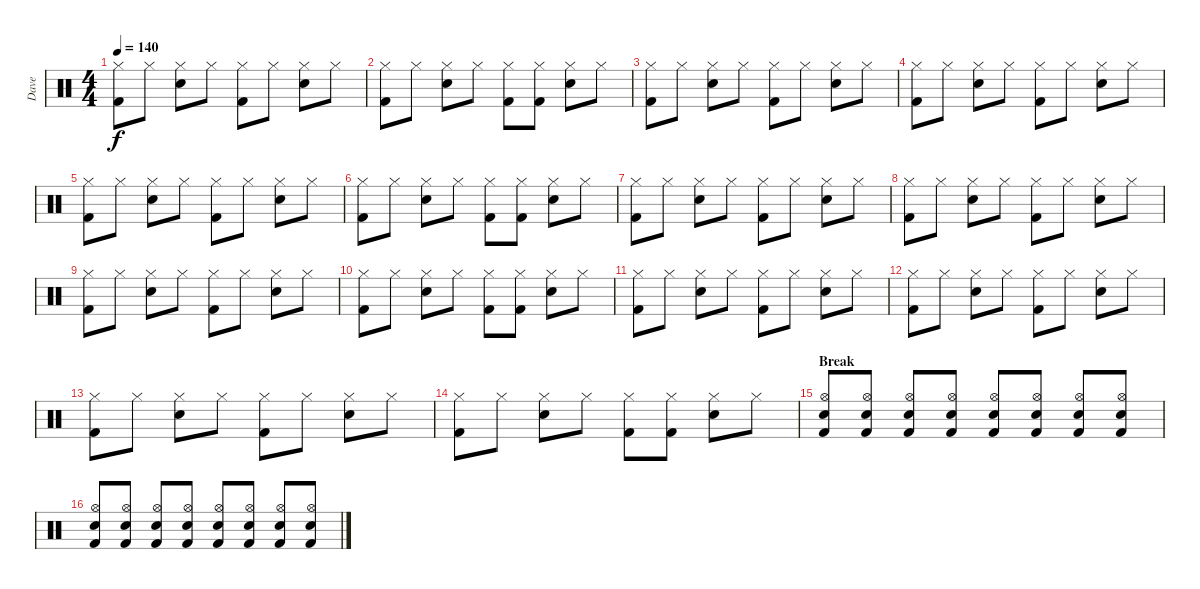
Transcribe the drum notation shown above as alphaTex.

\track ("Dave" "Dave") {instrument percussion}
\staff {score}
\articulation defaults
\ts (4 4)
\tempo 140
\clef neutral
\ks c
("Hi-Hat (closed)" "Kick (hit) 2").8{dy f} "Hi-Hat (closed)".8 ("Hi-Hat (closed)" "Electric Snare (hit)").8 "Hi-Hat (closed)".8 ("Hi-Hat (closed)" "Kick (hit) 2").8 "Hi-Hat (closed)".8 ("Hi-Hat (closed)" "Electric Snare (hit)").8 "Hi-Hat (closed)".8 |
("Hi-Hat (closed)" "Kick (hit) 2").8 "Hi-Hat (closed)".8 ("Hi-Hat (closed)" "Electric Snare (hit)").8 "Hi-Hat (closed)".8 ("Hi-Hat (closed)" "Kick (hit) 2").8 ("Hi-Hat (closed)" "Kick (hit) 2").8 ("Hi-Hat (closed)" "Electric Snare (hit)").8 "Hi-Hat (closed)".8 |
("Hi-Hat (closed)" "Kick (hit) 2").8 "Hi-Hat (closed)".8 ("Hi-Hat (closed)" "Electric Snare (hit)").8 "Hi-Hat (closed)".8 ("Hi-Hat (closed)" "Kick (hit) 2").8 "Hi-Hat (closed)".8 ("Hi-Hat (closed)" "Electric Snare (hit)").8 "Hi-Hat (closed)".8 |
("Hi-Hat (closed)" "Kick (hit) 2").8 "Hi-Hat (closed)".8 ("Hi-Hat (closed)" "Electric Snare (hit)").8 "Hi-Hat (closed)".8 ("Hi-Hat (closed)" "Kick (hit) 2").8 "Hi-Hat (closed)".8 ("Hi-Hat (closed)" "Electric Snare (hit)").8 "Hi-Hat (closed)".8 |
("Hi-Hat (closed)" "Kick (hit) 2").8 "Hi-Hat (closed)".8 ("Hi-Hat (closed)" "Electric Snare (hit)").8 "Hi-Hat (closed)".8 ("Hi-Hat (closed)" "Kick (hit) 2").8 "Hi-Hat (closed)".8 ("Hi-Hat (closed)" "Electric Snare (hit)").8 "Hi-Hat (closed)".8 |
("Hi-Hat (closed)" "Kick (hit) 2").8 "Hi-Hat (closed)".8 ("Hi-Hat (closed)" "Electric Snare (hit)").8 "Hi-Hat (closed)".8 ("Hi-Hat (closed)" "Kick (hit) 2").8 ("Hi-Hat (closed)" "Kick (hit) 2").8 ("Hi-Hat (closed)" "Electric Snare (hit)").8 "Hi-Hat (closed)".8 |
("Hi-Hat (closed)" "Kick (hit) 2").8 "Hi-Hat (closed)".8 ("Hi-Hat (closed)" "Electric Snare (hit)").8 "Hi-Hat (closed)".8 ("Hi-Hat (closed)" "Kick (hit) 2").8 "Hi-Hat (closed)".8 ("Hi-Hat (closed)" "Electric Snare (hit)").8 "Hi-Hat (closed)".8 |
("Hi-Hat (closed)" "Kick (hit) 2").8 "Hi-Hat (closed)".8 ("Hi-Hat (closed)" "Electric Snare (hit)").8 "Hi-Hat (closed)".8 ("Hi-Hat (closed)" "Kick (hit) 2").8 "Hi-Hat (closed)".8 ("Hi-Hat (closed)" "Electric Snare (hit)").8 "Hi-Hat (closed)".8 |
("Hi-Hat (closed)" "Kick (hit) 2").8 "Hi-Hat (closed)".8 ("Hi-Hat (closed)" "Electric Snare (hit)").8 "Hi-Hat (closed)".8 ("Hi-Hat (closed)" "Kick (hit) 2").8 "Hi-Hat (closed)".8 ("Hi-Hat (closed)" "Electric Snare (hit)").8 "Hi-Hat (closed)".8 |
("Hi-Hat (closed)" "Kick (hit) 2").8 "Hi-Hat (closed)".8 ("Hi-Hat (closed)" "Electric Snare (hit)").8 "Hi-Hat (closed)".8 ("Hi-Hat (closed)" "Kick (hit) 2").8 ("Hi-Hat (closed)" "Kick (hit) 2").8 ("Hi-Hat (closed)" "Electric Snare (hit)").8 "Hi-Hat (closed)".8 |
("Hi-Hat (closed)" "Kick (hit) 2").8 "Hi-Hat (closed)".8 ("Hi-Hat (closed)" "Electric Snare (hit)").8 "Hi-Hat (closed)".8 ("Hi-Hat (closed)" "Kick (hit) 2").8 "Hi-Hat (closed)".8 ("Hi-Hat (closed)" "Electric Snare (hit)").8 "Hi-Hat (closed)".8 |
("Hi-Hat (closed)" "Kick (hit) 2").8 "Hi-Hat (closed)".8 ("Hi-Hat (closed)" "Electric Snare (hit)").8 "Hi-Hat (closed)".8 ("Hi-Hat (closed)" "Kick (hit) 2").8 "Hi-Hat (closed)".8 ("Hi-Hat (closed)" "Electric Snare (hit)").8 "Hi-Hat (closed)".8 |
("Hi-Hat (closed)" "Kick (hit) 2").8 "Hi-Hat (closed)".8 ("Hi-Hat (closed)" "Electric Snare (hit)").8 "Hi-Hat (closed)".8 ("Hi-Hat (closed)" "Kick (hit) 2").8 "Hi-Hat (closed)".8 ("Hi-Hat (closed)" "Electric Snare (hit)").8 "Hi-Hat (closed)".8 |
("Hi-Hat (closed)" "Kick (hit) 2").8 "Hi-Hat (closed)".8 ("Hi-Hat (closed)" "Electric Snare (hit)").8 "Hi-Hat (closed)".8 ("Hi-Hat (closed)" "Kick (hit) 2").8 ("Hi-Hat (closed)" "Kick (hit) 2").8 ("Hi-Hat (closed)" "Electric Snare (hit)").8 "Hi-Hat (closed)".8 |
\section ("" "Break")
("Hi-Hat (open)" "Snare (hit) 2" "Kick (hit) 2").8 ("Hi-Hat (open)" "Snare (hit) 2" "Kick (hit) 2").8 ("Hi-Hat (open)" "Snare (hit) 2" "Kick (hit) 2").8 ("Hi-Hat (open)" "Snare (hit) 2" "Kick (hit) 2").8 ("Hi-Hat (open)" "Snare (hit) 2" "Kick (hit) 2").8 ("Hi-Hat (open)" "Snare (hit) 2" "Kick (hit) 2").8 ("Hi-Hat (open)" "Snare (hit) 2" "Kick (hit) 2").8 ("Hi-Hat (open)" "Snare (hit) 2" "Kick (hit) 2").8 |
("Hi-Hat (open)" "Snare (hit) 2" "Kick (hit) 2").8 ("Hi-Hat (open)" "Snare (hit) 2" "Kick (hit) 2").8 ("Hi-Hat (open)" "Snare (hit) 2" "Kick (hit) 2").8 ("Hi-Hat (open)" "Snare (hit) 2" "Kick (hit) 2").8 ("Hi-Hat (open)" "Snare (hit) 2" "Kick (hit) 2").8 ("Hi-Hat (open)" "Snare (hit) 2" "Kick (hit) 2").8 ("Hi-Hat (open)" "Snare (hit) 2" "Kick (hit) 2").8 ("Hi-Hat (open)" "Snare (hit) 2" "Kick (hit) 2").8
